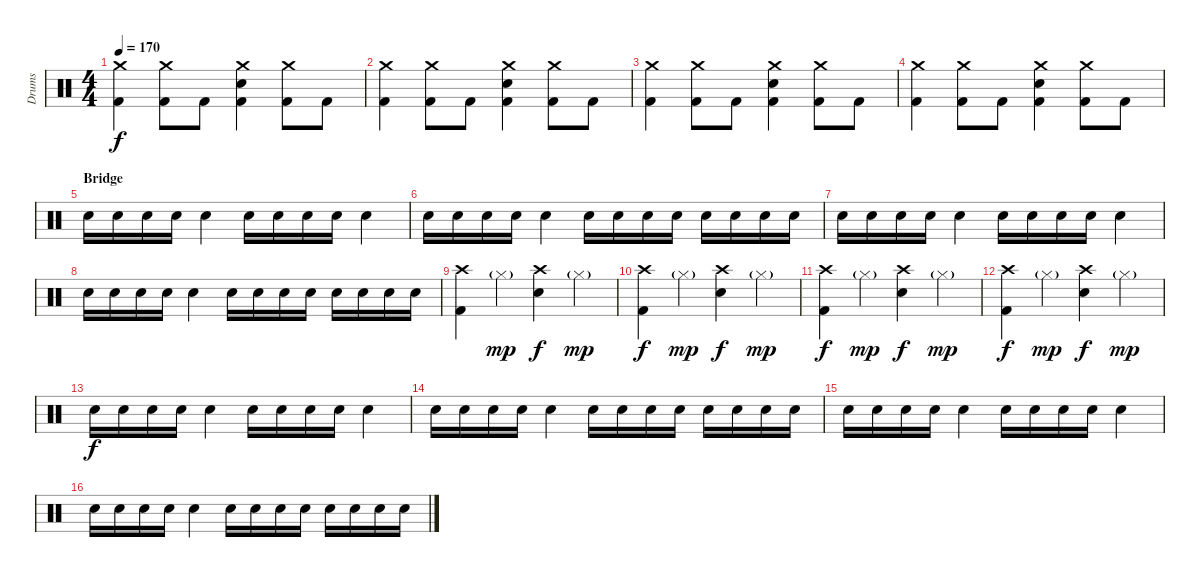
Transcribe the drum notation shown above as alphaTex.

\track ("Drums" "Drums") {instrument percussion}
\staff {score}
\articulation defaults
\ts (4 4)
\tempo 170
\clef neutral
\ks c
("Crash medium (hit)" "Kick (hit) 2").4{dy f} ("Crash medium (hit)" "Kick (hit) 2").8 "Kick (hit) 2".8 ("Crash medium (hit)" "Electric Snare (hit)" "Kick (hit) 2").4 ("Crash medium (hit)" "Kick (hit) 2").8 "Kick (hit) 2".8 |
("Crash medium (hit)" "Kick (hit) 2").4 ("Crash medium (hit)" "Kick (hit) 2").8 "Kick (hit) 2".8 ("Crash medium (hit)" "Electric Snare (hit)" "Kick (hit) 2").4 ("Crash medium (hit)" "Kick (hit) 2").8 "Kick (hit) 2".8 |
("Crash medium (hit)" "Kick (hit) 2").4 ("Crash medium (hit)" "Kick (hit) 2").8 "Kick (hit) 2".8 ("Crash medium (hit)" "Electric Snare (hit)" "Kick (hit) 2").4 ("Crash medium (hit)" "Kick (hit) 2").8 "Kick (hit) 2".8 |
("Crash medium (hit)" "Kick (hit) 2").4 ("Crash medium (hit)" "Kick (hit) 2").8 "Kick (hit) 2".8 ("Crash medium (hit)" "Electric Snare (hit)" "Kick (hit) 2").4 ("Crash medium (hit)" "Kick (hit) 2").8 "Kick (hit) 2".8 |
\section ("" "Bridge")
"Electric Snare (hit)".16 "Electric Snare (hit)".16 "Electric Snare (hit)".16 "Electric Snare (hit)".16 "Electric Snare (hit)".4 "Electric Snare (hit)".16 "Electric Snare (hit)".16 "Electric Snare (hit)".16 "Electric Snare (hit)".16 "Electric Snare (hit)".4 |
"Electric Snare (hit)".16 "Electric Snare (hit)".16 "Electric Snare (hit)".16 "Electric Snare (hit)".16 "Electric Snare (hit)".4 "Electric Snare (hit)".16 "Electric Snare (hit)".16 "Electric Snare (hit)".16 "Electric Snare (hit)".16 "Electric Snare (hit)".16 "Electric Snare (hit)".16 "Electric Snare (hit)".16 "Electric Snare (hit)".16 |
"Electric Snare (hit)".16 "Electric Snare (hit)".16 "Electric Snare (hit)".16 "Electric Snare (hit)".16 "Electric Snare (hit)".4 "Electric Snare (hit)".16 "Electric Snare (hit)".16 "Electric Snare (hit)".16 "Electric Snare (hit)".16 "Electric Snare (hit)".4 |
"Electric Snare (hit)".16 "Electric Snare (hit)".16 "Electric Snare (hit)".16 "Electric Snare (hit)".16 "Electric Snare (hit)".4 "Electric Snare (hit)".16 "Electric Snare (hit)".16 "Electric Snare (hit)".16 "Electric Snare (hit)".16 "Electric Snare (hit)".16 "Electric Snare (hit)".16 "Electric Snare (hit)".16 "Electric Snare (hit)".16 |
("Crash high (hit)" "Kick (hit) 2").4 "Hi-Hat (closed)"{g}.4{dy mp} ("Crash high (hit)" "Electric Snare (hit)").4{dy f} "Hi-Hat (closed)"{g}.4{dy mp} |
("Crash high (hit)" "Kick (hit) 2").4{dy f} "Hi-Hat (closed)"{g}.4{dy mp} ("Crash high (hit)" "Electric Snare (hit)").4{dy f} "Hi-Hat (closed)"{g}.4{dy mp} |
("Crash high (hit)" "Kick (hit) 2").4{dy f} "Hi-Hat (closed)"{g}.4{dy mp} ("Crash high (hit)" "Electric Snare (hit)").4{dy f} "Hi-Hat (closed)"{g}.4{dy mp} |
("Crash high (hit)" "Kick (hit) 2").4{dy f} "Hi-Hat (closed)"{g}.4{dy mp} ("Crash high (hit)" "Electric Snare (hit)").4{dy f} "Hi-Hat (closed)"{g}.4{dy mp} |
"Electric Snare (hit)".16{dy f} "Electric Snare (hit)".16 "Electric Snare (hit)".16 "Electric Snare (hit)".16 "Electric Snare (hit)".4 "Electric Snare (hit)".16 "Electric Snare (hit)".16 "Electric Snare (hit)".16 "Electric Snare (hit)".16 "Electric Snare (hit)".4 |
"Electric Snare (hit)".16 "Electric Snare (hit)".16 "Electric Snare (hit)".16 "Electric Snare (hit)".16 "Electric Snare (hit)".4 "Electric Snare (hit)".16 "Electric Snare (hit)".16 "Electric Snare (hit)".16 "Electric Snare (hit)".16 "Electric Snare (hit)".16 "Electric Snare (hit)".16 "Electric Snare (hit)".16 "Electric Snare (hit)".16 |
"Electric Snare (hit)".16 "Electric Snare (hit)".16 "Electric Snare (hit)".16 "Electric Snare (hit)".16 "Electric Snare (hit)".4 "Electric Snare (hit)".16 "Electric Snare (hit)".16 "Electric Snare (hit)".16 "Electric Snare (hit)".16 "Electric Snare (hit)".4 |
"Electric Snare (hit)".16 "Electric Snare (hit)".16 "Electric Snare (hit)".16 "Electric Snare (hit)".16 "Electric Snare (hit)".4 "Electric Snare (hit)".16 "Electric Snare (hit)".16 "Electric Snare (hit)".16 "Electric Snare (hit)".16 "Electric Snare (hit)".16 "Electric Snare (hit)".16 "Electric Snare (hit)".16 "Electric Snare (hit)".16
